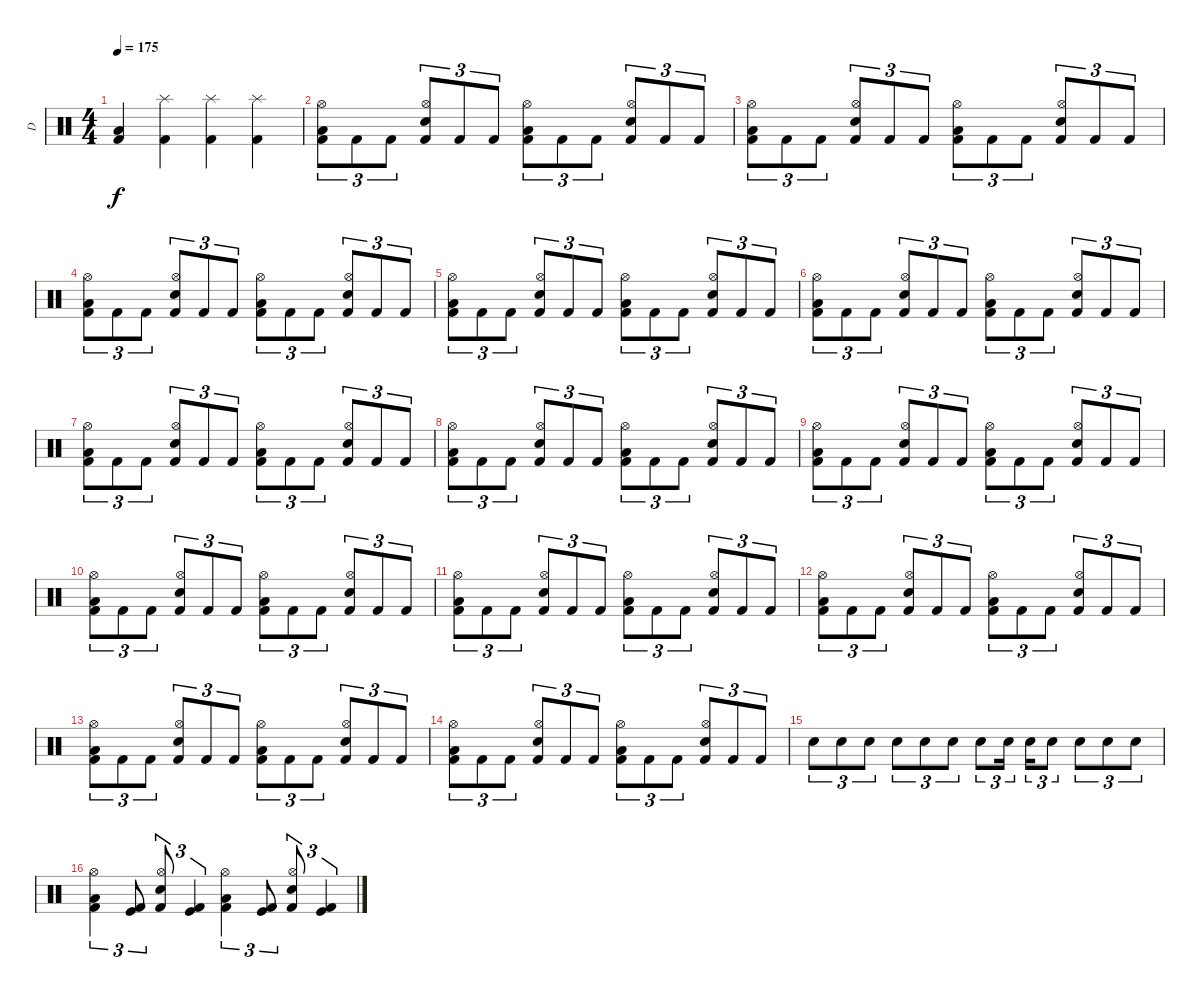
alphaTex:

\track ("D" "D") {instrument percussion}
\staff {score}
\articulation defaults
\ts (4 4)
\tempo 175
\clef neutral
\ks c
("Low Floor Tom (hit)" "Kick (hit) 2").4{dy f} ("Splash (hit)" "Kick (hit) 2").4 ("Splash (hit)" "Kick (hit) 2").4 ("Splash (hit)" "Kick (hit) 2").4 |
("Hi-Hat (open)" "Low Floor Tom (hit)" "Kick (hit) 2").8{tu (3 2)} "Kick (hit) 2".8{tu (3 2)} "Kick (hit) 2".8{tu (3 2)} ("Hi-Hat (open)" "Electric Snare (hit)" "Kick (hit) 2").8{tu (3 2)} "Kick (hit) 2".8{tu (3 2)} "Kick (hit) 2".8{tu (3 2)} ("Hi-Hat (open)" "Low Floor Tom (hit)" "Kick (hit) 2").8{tu (3 2)} "Kick (hit) 2".8{tu (3 2)} "Kick (hit) 2".8{tu (3 2)} ("Hi-Hat (open)" "Electric Snare (hit)" "Kick (hit) 2").8{tu (3 2)} "Kick (hit) 2".8{tu (3 2)} "Kick (hit) 2".8{tu (3 2)} |
("Hi-Hat (open)" "Low Floor Tom (hit)" "Kick (hit) 2").8{tu (3 2)} "Kick (hit) 2".8{tu (3 2)} "Kick (hit) 2".8{tu (3 2)} ("Hi-Hat (open)" "Electric Snare (hit)" "Kick (hit) 2").8{tu (3 2)} "Kick (hit) 2".8{tu (3 2)} "Kick (hit) 2".8{tu (3 2)} ("Hi-Hat (open)" "Low Floor Tom (hit)" "Kick (hit) 2").8{tu (3 2)} "Kick (hit) 2".8{tu (3 2)} "Kick (hit) 2".8{tu (3 2)} ("Hi-Hat (open)" "Electric Snare (hit)" "Kick (hit) 2").8{tu (3 2)} "Kick (hit) 2".8{tu (3 2)} "Kick (hit) 2".8{tu (3 2)} |
("Hi-Hat (open)" "Low Floor Tom (hit)" "Kick (hit) 2").8{tu (3 2)} "Kick (hit) 2".8{tu (3 2)} "Kick (hit) 2".8{tu (3 2)} ("Hi-Hat (open)" "Electric Snare (hit)" "Kick (hit) 2").8{tu (3 2)} "Kick (hit) 2".8{tu (3 2)} "Kick (hit) 2".8{tu (3 2)} ("Hi-Hat (open)" "Low Floor Tom (hit)" "Kick (hit) 2").8{tu (3 2)} "Kick (hit) 2".8{tu (3 2)} "Kick (hit) 2".8{tu (3 2)} ("Hi-Hat (open)" "Electric Snare (hit)" "Kick (hit) 2").8{tu (3 2)} "Kick (hit) 2".8{tu (3 2)} "Kick (hit) 2".8{tu (3 2)} |
("Hi-Hat (open)" "Low Floor Tom (hit)" "Kick (hit) 2").8{tu (3 2)} "Kick (hit) 2".8{tu (3 2)} "Kick (hit) 2".8{tu (3 2)} ("Hi-Hat (open)" "Electric Snare (hit)" "Kick (hit) 2").8{tu (3 2)} "Kick (hit) 2".8{tu (3 2)} "Kick (hit) 2".8{tu (3 2)} ("Hi-Hat (open)" "Low Floor Tom (hit)" "Kick (hit) 2").8{tu (3 2)} "Kick (hit) 2".8{tu (3 2)} "Kick (hit) 2".8{tu (3 2)} ("Hi-Hat (open)" "Electric Snare (hit)" "Kick (hit) 2").8{tu (3 2)} "Kick (hit) 2".8{tu (3 2)} "Kick (hit) 2".8{tu (3 2)} |
("Hi-Hat (open)" "Low Floor Tom (hit)" "Kick (hit) 2").8{tu (3 2)} "Kick (hit) 2".8{tu (3 2)} "Kick (hit) 2".8{tu (3 2)} ("Hi-Hat (open)" "Electric Snare (hit)" "Kick (hit) 2").8{tu (3 2)} "Kick (hit) 2".8{tu (3 2)} "Kick (hit) 2".8{tu (3 2)} ("Hi-Hat (open)" "Low Floor Tom (hit)" "Kick (hit) 2").8{tu (3 2)} "Kick (hit) 2".8{tu (3 2)} "Kick (hit) 2".8{tu (3 2)} ("Hi-Hat (open)" "Electric Snare (hit)" "Kick (hit) 2").8{tu (3 2)} "Kick (hit) 2".8{tu (3 2)} "Kick (hit) 2".8{tu (3 2)} |
("Hi-Hat (open)" "Low Floor Tom (hit)" "Kick (hit) 2").8{tu (3 2)} "Kick (hit) 2".8{tu (3 2)} "Kick (hit) 2".8{tu (3 2)} ("Hi-Hat (open)" "Electric Snare (hit)" "Kick (hit) 2").8{tu (3 2)} "Kick (hit) 2".8{tu (3 2)} "Kick (hit) 2".8{tu (3 2)} ("Hi-Hat (open)" "Low Floor Tom (hit)" "Kick (hit) 2").8{tu (3 2)} "Kick (hit) 2".8{tu (3 2)} "Kick (hit) 2".8{tu (3 2)} ("Hi-Hat (open)" "Electric Snare (hit)" "Kick (hit) 2").8{tu (3 2)} "Kick (hit) 2".8{tu (3 2)} "Kick (hit) 2".8{tu (3 2)} |
("Hi-Hat (open)" "Low Floor Tom (hit)" "Kick (hit) 2").8{tu (3 2)} "Kick (hit) 2".8{tu (3 2)} "Kick (hit) 2".8{tu (3 2)} ("Hi-Hat (open)" "Electric Snare (hit)" "Kick (hit) 2").8{tu (3 2)} "Kick (hit) 2".8{tu (3 2)} "Kick (hit) 2".8{tu (3 2)} ("Hi-Hat (open)" "Low Floor Tom (hit)" "Kick (hit) 2").8{tu (3 2)} "Kick (hit) 2".8{tu (3 2)} "Kick (hit) 2".8{tu (3 2)} ("Hi-Hat (open)" "Electric Snare (hit)" "Kick (hit) 2").8{tu (3 2)} "Kick (hit) 2".8{tu (3 2)} "Kick (hit) 2".8{tu (3 2)} |
("Hi-Hat (open)" "Low Floor Tom (hit)" "Kick (hit) 2").8{tu (3 2)} "Kick (hit) 2".8{tu (3 2)} "Kick (hit) 2".8{tu (3 2)} ("Hi-Hat (open)" "Electric Snare (hit)" "Kick (hit) 2").8{tu (3 2)} "Kick (hit) 2".8{tu (3 2)} "Kick (hit) 2".8{tu (3 2)} ("Hi-Hat (open)" "Low Floor Tom (hit)" "Kick (hit) 2").8{tu (3 2)} "Kick (hit) 2".8{tu (3 2)} "Kick (hit) 2".8{tu (3 2)} ("Hi-Hat (open)" "Electric Snare (hit)" "Kick (hit) 2").8{tu (3 2)} "Kick (hit) 2".8{tu (3 2)} "Kick (hit) 2".8{tu (3 2)} |
("Hi-Hat (open)" "Low Floor Tom (hit)" "Kick (hit) 2").8{tu (3 2)} "Kick (hit) 2".8{tu (3 2)} "Kick (hit) 2".8{tu (3 2)} ("Hi-Hat (open)" "Electric Snare (hit)" "Kick (hit) 2").8{tu (3 2)} "Kick (hit) 2".8{tu (3 2)} "Kick (hit) 2".8{tu (3 2)} ("Hi-Hat (open)" "Low Floor Tom (hit)" "Kick (hit) 2").8{tu (3 2)} "Kick (hit) 2".8{tu (3 2)} "Kick (hit) 2".8{tu (3 2)} ("Hi-Hat (open)" "Electric Snare (hit)" "Kick (hit) 2").8{tu (3 2)} "Kick (hit) 2".8{tu (3 2)} "Kick (hit) 2".8{tu (3 2)} |
("Hi-Hat (open)" "Low Floor Tom (hit)" "Kick (hit) 2").8{tu (3 2)} "Kick (hit) 2".8{tu (3 2)} "Kick (hit) 2".8{tu (3 2)} ("Hi-Hat (open)" "Electric Snare (hit)" "Kick (hit) 2").8{tu (3 2)} "Kick (hit) 2".8{tu (3 2)} "Kick (hit) 2".8{tu (3 2)} ("Hi-Hat (open)" "Low Floor Tom (hit)" "Kick (hit) 2").8{tu (3 2)} "Kick (hit) 2".8{tu (3 2)} "Kick (hit) 2".8{tu (3 2)} ("Hi-Hat (open)" "Electric Snare (hit)" "Kick (hit) 2").8{tu (3 2)} "Kick (hit) 2".8{tu (3 2)} "Kick (hit) 2".8{tu (3 2)} |
("Hi-Hat (open)" "Low Floor Tom (hit)" "Kick (hit) 2").8{tu (3 2)} "Kick (hit) 2".8{tu (3 2)} "Kick (hit) 2".8{tu (3 2)} ("Hi-Hat (open)" "Electric Snare (hit)" "Kick (hit) 2").8{tu (3 2)} "Kick (hit) 2".8{tu (3 2)} "Kick (hit) 2".8{tu (3 2)} ("Hi-Hat (open)" "Low Floor Tom (hit)" "Kick (hit) 2").8{tu (3 2)} "Kick (hit) 2".8{tu (3 2)} "Kick (hit) 2".8{tu (3 2)} ("Hi-Hat (open)" "Electric Snare (hit)" "Kick (hit) 2").8{tu (3 2)} "Kick (hit) 2".8{tu (3 2)} "Kick (hit) 2".8{tu (3 2)} |
("Hi-Hat (open)" "Low Floor Tom (hit)" "Kick (hit) 2").8{tu (3 2)} "Kick (hit) 2".8{tu (3 2)} "Kick (hit) 2".8{tu (3 2)} ("Hi-Hat (open)" "Electric Snare (hit)" "Kick (hit) 2").8{tu (3 2)} "Kick (hit) 2".8{tu (3 2)} "Kick (hit) 2".8{tu (3 2)} ("Hi-Hat (open)" "Low Floor Tom (hit)" "Kick (hit) 2").8{tu (3 2)} "Kick (hit) 2".8{tu (3 2)} "Kick (hit) 2".8{tu (3 2)} ("Hi-Hat (open)" "Electric Snare (hit)" "Kick (hit) 2").8{tu (3 2)} "Kick (hit) 2".8{tu (3 2)} "Kick (hit) 2".8{tu (3 2)} |
("Hi-Hat (open)" "Low Floor Tom (hit)" "Kick (hit) 2").8{tu (3 2)} "Kick (hit) 2".8{tu (3 2)} "Kick (hit) 2".8{tu (3 2)} ("Hi-Hat (open)" "Electric Snare (hit)" "Kick (hit) 2").8{tu (3 2)} "Kick (hit) 2".8{tu (3 2)} "Kick (hit) 2".8{tu (3 2)} ("Hi-Hat (open)" "Low Floor Tom (hit)" "Kick (hit) 2").8{tu (3 2)} "Kick (hit) 2".8{tu (3 2)} "Kick (hit) 2".8{tu (3 2)} ("Hi-Hat (open)" "Electric Snare (hit)" "Kick (hit) 2").8{tu (3 2)} "Kick (hit) 2".8{tu (3 2)} "Kick (hit) 2".8{tu (3 2)} |
"Electric Snare (hit)".8{tu (3 2)} "Electric Snare (hit)".8{tu (3 2)} "Electric Snare (hit)".8{tu (3 2)} "Electric Snare (hit)".8{tu (3 2)} "Electric Snare (hit)".8{tu (3 2)} "Electric Snare (hit)".8{tu (3 2)} "Electric Snare (hit)".8{tu (3 2)} "Electric Snare (hit)".16{tu (3 2)} "Electric Snare (hit)".16{tu (3 2)} "Electric Snare (hit)".8{tu (3 2)} "Electric Snare (hit)".8{tu (3 2)} "Electric Snare (hit)".8{tu (3 2)} "Electric Snare (hit)".8{tu (3 2)} |
("Hi-Hat (open)" "Low Floor Tom (hit)" "Kick (hit) 2").4{tu (3 2)} ("Kick (hit)" "Kick (hit) 2").8{tu (3 2)} ("Hi-Hat (open)" "Electric Snare (hit)" "Kick (hit) 2").8{tu (3 2)} ("Kick (hit)" "Kick (hit) 2").4{tu (3 2)} ("Hi-Hat (open)" "Low Floor Tom (hit)" "Kick (hit) 2").4{tu (3 2)} ("Kick (hit)" "Kick (hit) 2").8{tu (3 2)} ("Hi-Hat (open)" "Electric Snare (hit)" "Kick (hit) 2").8{tu (3 2)} ("Kick (hit)" "Kick (hit) 2").4{tu (3 2)}
